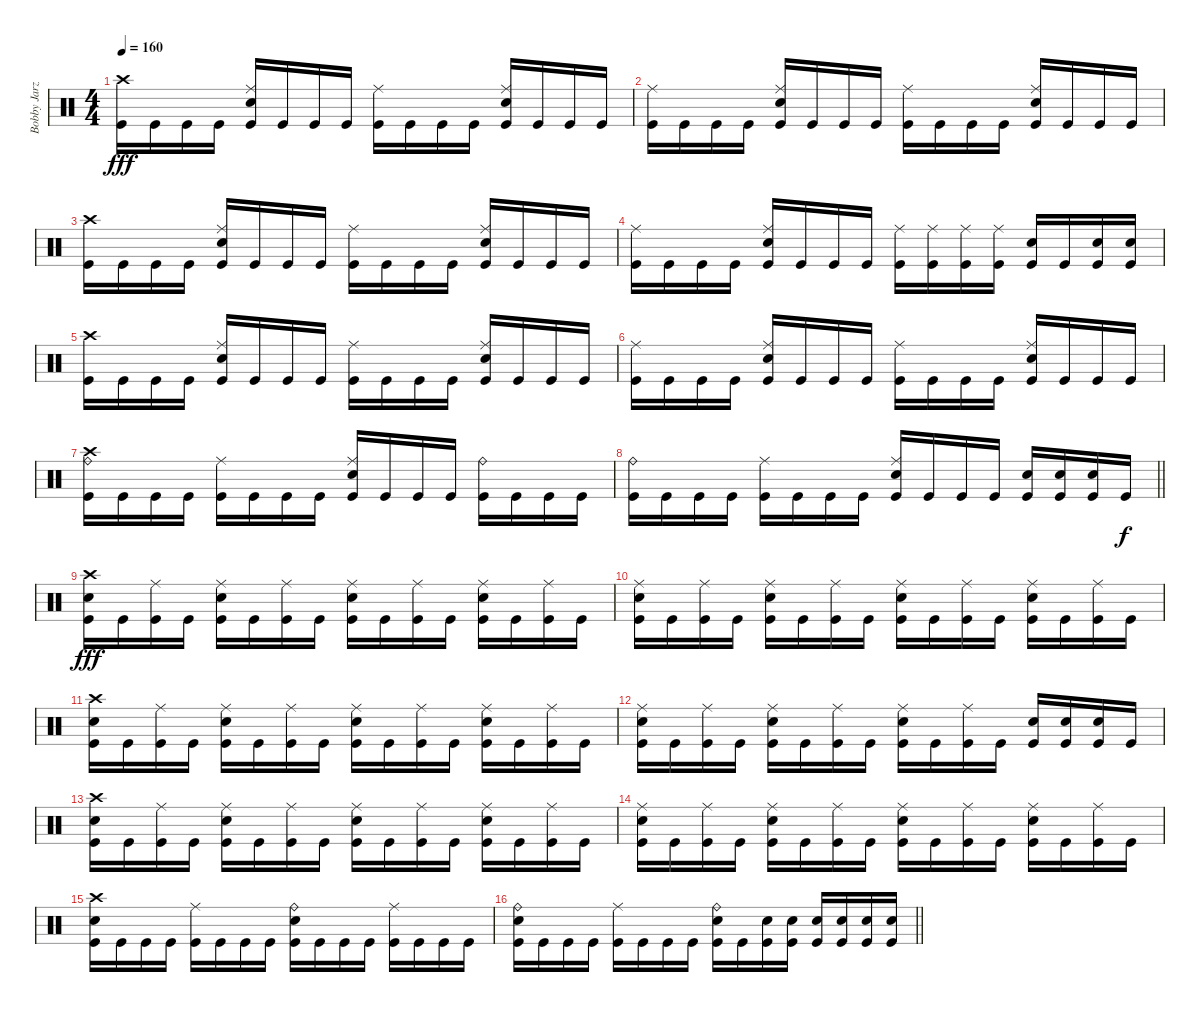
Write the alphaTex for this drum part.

\track ("Bobby Jarzombek" "Bobby Jarz") {instrument percussion}
\staff {score}
\articulation defaults
\ts (4 4)
\tempo 160
\clef neutral
\ks c
("Crash high (hit)" "Kick (hit)").16{dy fff} "Kick (hit)".16 "Kick (hit)".16 "Kick (hit)".16 ("Ride (middle)" "Electric Snare (hit)" "Kick (hit)").16 "Kick (hit)".16 "Kick (hit)".16 "Kick (hit)".16 ("Ride (middle)" "Kick (hit)").16 "Kick (hit)".16 "Kick (hit)".16 "Kick (hit)".16 ("Ride (middle)" "Electric Snare (hit)" "Kick (hit)").16 "Kick (hit)".16 "Kick (hit)".16 "Kick (hit)".16 |
("Ride (middle)" "Kick (hit)").16 "Kick (hit)".16 "Kick (hit)".16 "Kick (hit)".16 ("Ride (middle)" "Electric Snare (hit)" "Kick (hit)").16 "Kick (hit)".16 "Kick (hit)".16 "Kick (hit)".16 ("Ride (middle)" "Kick (hit)").16 "Kick (hit)".16 "Kick (hit)".16 "Kick (hit)".16 ("Ride (middle)" "Electric Snare (hit)" "Kick (hit)").16 "Kick (hit)".16 "Kick (hit)".16 "Kick (hit)".16 |
("Crash high (hit)" "Kick (hit)").16 "Kick (hit)".16 "Kick (hit)".16 "Kick (hit)".16 ("Ride (middle)" "Electric Snare (hit)" "Kick (hit)").16 "Kick (hit)".16 "Kick (hit)".16 "Kick (hit)".16 ("Ride (middle)" "Kick (hit)").16 "Kick (hit)".16 "Kick (hit)".16 "Kick (hit)".16 ("Ride (middle)" "Electric Snare (hit)" "Kick (hit)").16 "Kick (hit)".16 "Kick (hit)".16 "Kick (hit)".16 |
("Ride (middle)" "Kick (hit)").16 "Kick (hit)".16 "Kick (hit)".16 "Kick (hit)".16 ("Ride (middle)" "Electric Snare (hit)" "Kick (hit)").16 "Kick (hit)".16 "Kick (hit)".16 "Kick (hit)".16 ("Ride (middle)" "Kick (hit)").16 ("Ride (middle)" "Kick (hit)").16 ("Ride (middle)" "Kick (hit)").16 ("Ride (middle)" "Kick (hit)").16 ("Electric Snare (hit)" "Kick (hit)").16 "Kick (hit)".16 ("Electric Snare (hit)" "Kick (hit)").16 ("Electric Snare (hit)" "Kick (hit)").16 |
("Crash high (hit)" "Kick (hit)").16 "Kick (hit)".16 "Kick (hit)".16 "Kick (hit)".16 ("Ride (middle)" "Electric Snare (hit)" "Kick (hit)").16 "Kick (hit)".16 "Kick (hit)".16 "Kick (hit)".16 ("Ride (middle)" "Kick (hit)").16 "Kick (hit)".16 "Kick (hit)".16 "Kick (hit)".16 ("Ride (middle)" "Electric Snare (hit)" "Kick (hit)").16 "Kick (hit)".16 "Kick (hit)".16 "Kick (hit)".16 |
("Ride (middle)" "Kick (hit)").16 "Kick (hit)".16 "Kick (hit)".16 "Kick (hit)".16 ("Ride (middle)" "Electric Snare (hit)" "Kick (hit)").16 "Kick (hit)".16 "Kick (hit)".16 "Kick (hit)".16 ("Ride (middle)" "Kick (hit)").16 "Kick (hit)".16 "Kick (hit)".16 "Kick (hit)".16 ("Ride (middle)" "Electric Snare (hit)" "Kick (hit)").16 "Kick (hit)".16 "Kick (hit)".16 "Kick (hit)".16 |
("Ride (bell)" "Crash high (hit)" "Kick (hit)").16 "Kick (hit)".16 "Kick (hit)".16 "Kick (hit)".16 ("Ride (middle)" "Kick (hit)").16 "Kick (hit)".16 "Kick (hit)".16 "Kick (hit)".16 ("Ride (middle)" "Electric Snare (hit)" "Kick (hit)").16 "Kick (hit)".16 "Kick (hit)".16 "Kick (hit)".16 ("Ride (bell)" "Kick (hit)").16 "Kick (hit)".16 "Kick (hit)".16 "Kick (hit)".16 |
\barLineRight lightlight
("Ride (bell)" "Kick (hit)").16 "Kick (hit)".16 "Kick (hit)".16 "Kick (hit)".16 ("Ride (middle)" "Kick (hit)").16 "Kick (hit)".16 "Kick (hit)".16 "Kick (hit)".16 ("Ride (middle)" "Electric Snare (hit)" "Kick (hit)").16 "Kick (hit)".16 "Kick (hit)".16 "Kick (hit)".16 ("Electric Snare (hit)" "Kick (hit)").16 ("Electric Snare (hit)" "Kick (hit)").16 ("Electric Snare (hit)" "Kick (hit)").16 "Kick (hit)".16{dy f} |
("Crash high (hit)" "Electric Snare (hit)" "Kick (hit)").16{dy fff} "Kick (hit)".16 ("Ride (middle)" "Kick (hit)").16 "Kick (hit)".16 ("Ride (middle)" "Electric Snare (hit)" "Kick (hit)").16 "Kick (hit)".16 ("Ride (middle)" "Kick (hit)").16 "Kick (hit)".16 ("Ride (middle)" "Electric Snare (hit)" "Kick (hit)").16 "Kick (hit)".16 ("Ride (middle)" "Kick (hit)").16 "Kick (hit)".16 ("Ride (middle)" "Electric Snare (hit)" "Kick (hit)").16 "Kick (hit)".16 ("Ride (middle)" "Kick (hit)").16 "Kick (hit)".16 |
("Ride (middle)" "Electric Snare (hit)" "Kick (hit)").16 "Kick (hit)".16 ("Ride (middle)" "Kick (hit)").16 "Kick (hit)".16 ("Ride (middle)" "Electric Snare (hit)" "Kick (hit)").16 "Kick (hit)".16 ("Ride (middle)" "Kick (hit)").16 "Kick (hit)".16 ("Ride (middle)" "Electric Snare (hit)" "Kick (hit)").16 "Kick (hit)".16 ("Ride (middle)" "Kick (hit)").16 "Kick (hit)".16 ("Ride (middle)" "Electric Snare (hit)" "Kick (hit)").16 "Kick (hit)".16 ("Ride (middle)" "Kick (hit)").16 "Kick (hit)".16 |
("Crash high (hit)" "Electric Snare (hit)" "Kick (hit)").16 "Kick (hit)".16 ("Ride (middle)" "Kick (hit)").16 "Kick (hit)".16 ("Ride (middle)" "Electric Snare (hit)" "Kick (hit)").16 "Kick (hit)".16 ("Ride (middle)" "Kick (hit)").16 "Kick (hit)".16 ("Ride (middle)" "Electric Snare (hit)" "Kick (hit)").16 "Kick (hit)".16 ("Ride (middle)" "Kick (hit)").16 "Kick (hit)".16 ("Ride (middle)" "Electric Snare (hit)" "Kick (hit)").16 "Kick (hit)".16 ("Ride (middle)" "Kick (hit)").16 "Kick (hit)".16 |
("Ride (middle)" "Electric Snare (hit)" "Kick (hit)").16 "Kick (hit)".16 ("Ride (middle)" "Kick (hit)").16 "Kick (hit)".16 ("Ride (middle)" "Electric Snare (hit)" "Kick (hit)").16 "Kick (hit)".16 ("Ride (middle)" "Kick (hit)").16 "Kick (hit)".16 ("Ride (middle)" "Electric Snare (hit)" "Kick (hit)").16 "Kick (hit)".16 ("Ride (middle)" "Kick (hit)").16 "Kick (hit)".16 ("Electric Snare (hit)" "Kick (hit)").16 ("Electric Snare (hit)" "Kick (hit)").16 ("Electric Snare (hit)" "Kick (hit)").16 "Kick (hit)".16 |
("Crash high (hit)" "Electric Snare (hit)" "Kick (hit)").16 "Kick (hit)".16 ("Ride (middle)" "Kick (hit)").16 "Kick (hit)".16 ("Ride (middle)" "Electric Snare (hit)" "Kick (hit)").16 "Kick (hit)".16 ("Ride (middle)" "Kick (hit)").16 "Kick (hit)".16 ("Ride (middle)" "Electric Snare (hit)" "Kick (hit)").16 "Kick (hit)".16 ("Ride (middle)" "Kick (hit)").16 "Kick (hit)".16 ("Ride (middle)" "Electric Snare (hit)" "Kick (hit)").16 "Kick (hit)".16 ("Ride (middle)" "Kick (hit)").16 "Kick (hit)".16 |
("Ride (middle)" "Electric Snare (hit)" "Kick (hit)").16 "Kick (hit)".16 ("Ride (middle)" "Kick (hit)").16 "Kick (hit)".16 ("Ride (middle)" "Electric Snare (hit)" "Kick (hit)").16 "Kick (hit)".16 ("Ride (middle)" "Kick (hit)").16 "Kick (hit)".16 ("Ride (middle)" "Electric Snare (hit)" "Kick (hit)").16 "Kick (hit)".16 ("Ride (middle)" "Kick (hit)").16 "Kick (hit)".16 ("Ride (middle)" "Electric Snare (hit)" "Kick (hit)").16 "Kick (hit)".16 ("Ride (middle)" "Kick (hit)").16 "Kick (hit)".16 |
("Crash high (hit)" "Electric Snare (hit)" "Kick (hit)").16 "Kick (hit)".16 "Kick (hit)".16 "Kick (hit)".16 ("Ride (middle)" "Kick (hit)").16 "Kick (hit)".16 "Kick (hit)".16 "Kick (hit)".16 ("Ride (bell)" "Electric Snare (hit)" "Kick (hit)").16 "Kick (hit)".16 "Kick (hit)".16 "Kick (hit)".16 ("Ride (middle)" "Kick (hit)").16 "Kick (hit)".16 "Kick (hit)".16 "Kick (hit)".16 |
\barLineRight lightlight
("Ride (bell)" "Electric Snare (hit)" "Kick (hit)").16 "Kick (hit)".16 "Kick (hit)".16 "Kick (hit)".16 ("Ride (middle)" "Kick (hit)").16 "Kick (hit)".16 "Kick (hit)".16 "Kick (hit)".16 ("Ride (bell)" "Electric Snare (hit)" "Kick (hit)").16 "Kick (hit)".16 ("Electric Snare (hit)" "Kick (hit)").16 ("Electric Snare (hit)" "Kick (hit)").16 ("Electric Snare (hit)" "Kick (hit)").16 ("Electric Snare (hit)" "Kick (hit)").16 ("Electric Snare (hit)" "Kick (hit)").16 ("Electric Snare (hit)" "Kick (hit)").16
